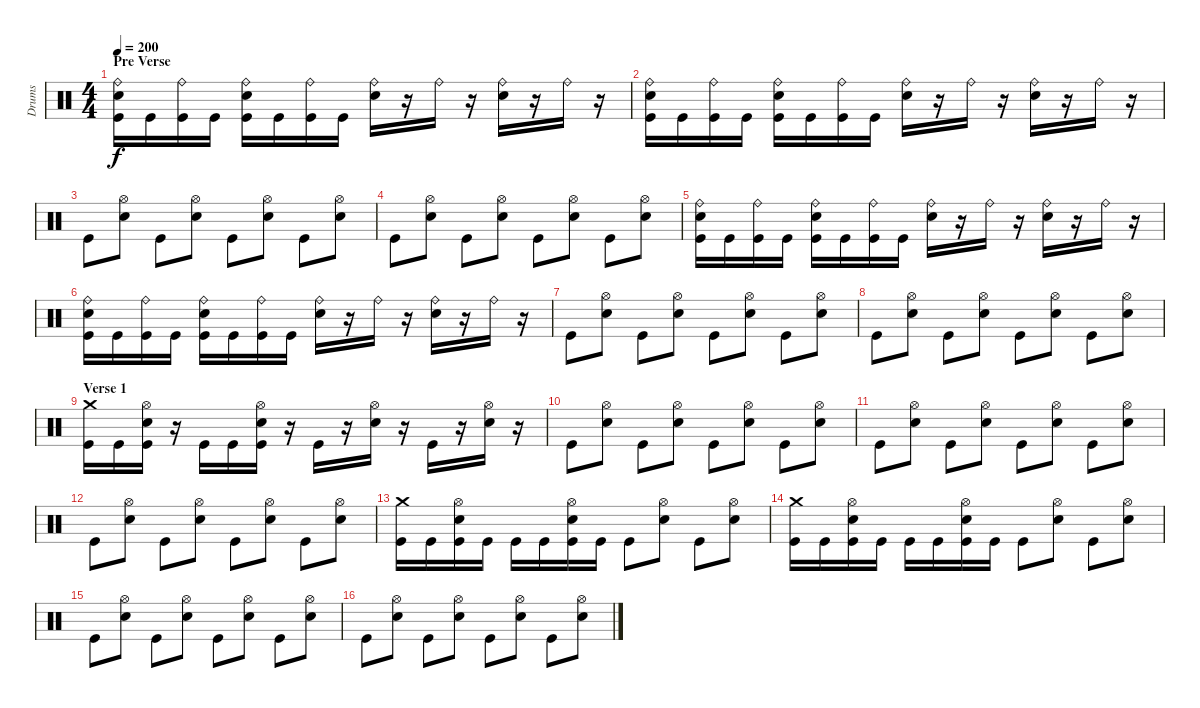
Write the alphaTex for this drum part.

\track ("Drums" "Drums") {instrument percussion}
\staff {score}
\articulation defaults
\ts (4 4)
\section ("" "Pre Verse")
\tempo 200
\clef neutral
\ks c
("Ride (bell)" "Electric Snare (hit)" "Kick (hit)").16{dy f} "Kick (hit)".16 ("Ride (bell)" "Kick (hit)").16 "Kick (hit)".16 ("Ride (bell)" "Electric Snare (hit)" "Kick (hit)").16 "Kick (hit)".16 ("Ride (bell)" "Kick (hit)").16 "Kick (hit)".16 ("Ride (bell)" "Electric Snare (hit)").16 r.16 "Ride (bell)".16 r.16 ("Ride (bell)" "Electric Snare (hit)").16 r.16 "Ride (bell)".16 r.16 |
("Ride (bell)" "Electric Snare (hit)" "Kick (hit)").16 "Kick (hit)".16 ("Ride (bell)" "Kick (hit)").16 "Kick (hit)".16 ("Ride (bell)" "Electric Snare (hit)" "Kick (hit)").16 "Kick (hit)".16 ("Ride (bell)" "Kick (hit)").16 "Kick (hit)".16 ("Ride (bell)" "Electric Snare (hit)").16 r.16 "Ride (bell)".16 r.16 ("Ride (bell)" "Electric Snare (hit)").16 r.16 "Ride (bell)".16 r.16 |
"Kick (hit)".8 ("Hi-Hat (open)" "Electric Snare (hit)").8 "Kick (hit)".8 ("Hi-Hat (open)" "Electric Snare (hit)").8 "Kick (hit)".8 ("Hi-Hat (open)" "Electric Snare (hit)").8 "Kick (hit)".8 ("Hi-Hat (open)" "Electric Snare (hit)").8 |
"Kick (hit)".8 ("Hi-Hat (open)" "Electric Snare (hit)").8 "Kick (hit)".8 ("Hi-Hat (open)" "Electric Snare (hit)").8 "Kick (hit)".8 ("Hi-Hat (open)" "Electric Snare (hit)").8 "Kick (hit)".8 ("Hi-Hat (open)" "Electric Snare (hit)").8 |
("Ride (bell)" "Electric Snare (hit)" "Kick (hit)").16 "Kick (hit)".16 ("Ride (bell)" "Kick (hit)").16 "Kick (hit)".16 ("Ride (bell)" "Electric Snare (hit)" "Kick (hit)").16 "Kick (hit)".16 ("Ride (bell)" "Kick (hit)").16 "Kick (hit)".16 ("Ride (bell)" "Electric Snare (hit)").16 r.16 "Ride (bell)".16 r.16 ("Ride (bell)" "Electric Snare (hit)").16 r.16 "Ride (bell)".16 r.16 |
("Ride (bell)" "Electric Snare (hit)" "Kick (hit)").16 "Kick (hit)".16 ("Ride (bell)" "Kick (hit)").16 "Kick (hit)".16 ("Ride (bell)" "Electric Snare (hit)" "Kick (hit)").16 "Kick (hit)".16 ("Ride (bell)" "Kick (hit)").16 "Kick (hit)".16 ("Ride (bell)" "Electric Snare (hit)").16 r.16 "Ride (bell)".16 r.16 ("Ride (bell)" "Electric Snare (hit)").16 r.16 "Ride (bell)".16 r.16 |
"Kick (hit)".8 ("Hi-Hat (open)" "Electric Snare (hit)").8 "Kick (hit)".8 ("Hi-Hat (open)" "Electric Snare (hit)").8 "Kick (hit)".8 ("Hi-Hat (open)" "Electric Snare (hit)").8 "Kick (hit)".8 ("Hi-Hat (open)" "Electric Snare (hit)").8 |
"Kick (hit)".8 ("Hi-Hat (open)" "Electric Snare (hit)").8 "Kick (hit)".8 ("Hi-Hat (open)" "Electric Snare (hit)").8 "Kick (hit)".8 ("Hi-Hat (open)" "Electric Snare (hit)").8 "Kick (hit)".8 ("Hi-Hat (open)" "Electric Snare (hit)").8 |
\section ("" "Verse 1")
("Crash medium (hit)" "Kick (hit)").16 "Kick (hit)".16 ("Hi-Hat (open)" "Electric Snare (hit)" "Kick (hit)").16 r.16 "Kick (hit)".16 "Kick (hit)".16 ("Hi-Hat (open)" "Electric Snare (hit)" "Kick (hit)").16 r.16 "Kick (hit)".16 r.16 ("Hi-Hat (open)" "Electric Snare (hit)").16 r.16 "Kick (hit)".16 r.16 ("Hi-Hat (open)" "Electric Snare (hit)").16 r.16 |
"Kick (hit)".8 ("Hi-Hat (open)" "Electric Snare (hit)").8 "Kick (hit)".8 ("Hi-Hat (open)" "Electric Snare (hit)").8 "Kick (hit)".8 ("Hi-Hat (open)" "Electric Snare (hit)").8 "Kick (hit)".8 ("Hi-Hat (open)" "Electric Snare (hit)").8 |
"Kick (hit)".8 ("Hi-Hat (open)" "Electric Snare (hit)").8 "Kick (hit)".8 ("Hi-Hat (open)" "Electric Snare (hit)").8 "Kick (hit)".8 ("Hi-Hat (open)" "Electric Snare (hit)").8 "Kick (hit)".8 ("Hi-Hat (open)" "Electric Snare (hit)").8 |
"Kick (hit)".8 ("Hi-Hat (open)" "Electric Snare (hit)").8 "Kick (hit)".8 ("Hi-Hat (open)" "Electric Snare (hit)").8 "Kick (hit)".8 ("Hi-Hat (open)" "Electric Snare (hit)").8 "Kick (hit)".8 ("Hi-Hat (open)" "Electric Snare (hit)").8 |
("Crash medium (hit)" "Kick (hit)").16 "Kick (hit)".16 ("Hi-Hat (open)" "Electric Snare (hit)" "Kick (hit)").16 "Kick (hit)".16 "Kick (hit)".16 "Kick (hit)".16 ("Hi-Hat (open)" "Electric Snare (hit)" "Kick (hit)").16 "Kick (hit)".16 "Kick (hit)".8 ("Hi-Hat (open)" "Electric Snare (hit)").8 "Kick (hit)".8 ("Hi-Hat (open)" "Electric Snare (hit)").8 |
("Crash medium (hit)" "Kick (hit)").16 "Kick (hit)".16 ("Hi-Hat (open)" "Electric Snare (hit)" "Kick (hit)").16 "Kick (hit)".16 "Kick (hit)".16 "Kick (hit)".16 ("Hi-Hat (open)" "Electric Snare (hit)" "Kick (hit)").16 "Kick (hit)".16 "Kick (hit)".8 ("Hi-Hat (open)" "Electric Snare (hit)").8 "Kick (hit)".8 ("Hi-Hat (open)" "Electric Snare (hit)").8 |
"Kick (hit)".8 ("Hi-Hat (open)" "Electric Snare (hit)").8 "Kick (hit)".8 ("Hi-Hat (open)" "Electric Snare (hit)").8 "Kick (hit)".8 ("Hi-Hat (open)" "Electric Snare (hit)").8 "Kick (hit)".8 ("Hi-Hat (open)" "Electric Snare (hit)").8 |
"Kick (hit)".8 ("Hi-Hat (open)" "Electric Snare (hit)").8 "Kick (hit)".8 ("Hi-Hat (open)" "Electric Snare (hit)").8 "Kick (hit)".8 ("Hi-Hat (open)" "Electric Snare (hit)").8 "Kick (hit)".8 ("Hi-Hat (open)" "Electric Snare (hit)").8
